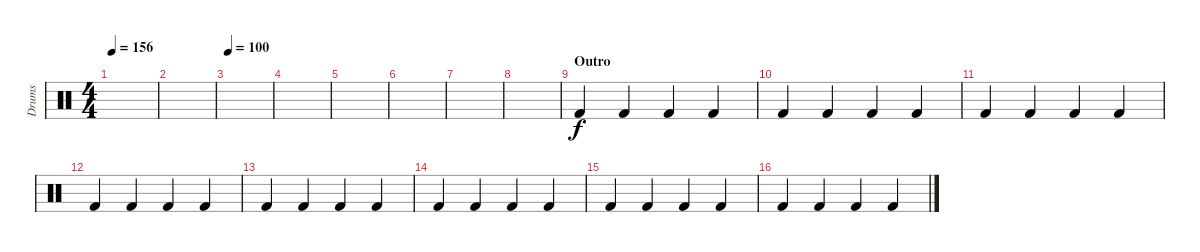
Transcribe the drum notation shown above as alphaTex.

\track ("Drums" "Drums") {instrument percussion}
\staff {score}
\articulation defaults
\ts (4 4)
\tempo 156
\clef neutral
\ks c
|
|
\tempo 100
|
|
|
|
|
|
\section ("" "Outro")
"Kick (hit) 2".4 "Kick (hit) 2".4 "Kick (hit) 2".4 "Kick (hit) 2".4 |
"Kick (hit) 2".4 "Kick (hit) 2".4 "Kick (hit) 2".4 "Kick (hit) 2".4 |
"Kick (hit) 2".4 "Kick (hit) 2".4 "Kick (hit) 2".4 "Kick (hit) 2".4 |
"Kick (hit) 2".4 "Kick (hit) 2".4 "Kick (hit) 2".4 "Kick (hit) 2".4 |
"Kick (hit) 2".4 "Kick (hit) 2".4 "Kick (hit) 2".4 "Kick (hit) 2".4 |
"Kick (hit) 2".4 "Kick (hit) 2".4 "Kick (hit) 2".4 "Kick (hit) 2".4 |
"Kick (hit) 2".4 "Kick (hit) 2".4 "Kick (hit) 2".4 "Kick (hit) 2".4 |
"Kick (hit) 2".4 "Kick (hit) 2".4 "Kick (hit) 2".4 "Kick (hit) 2".4
